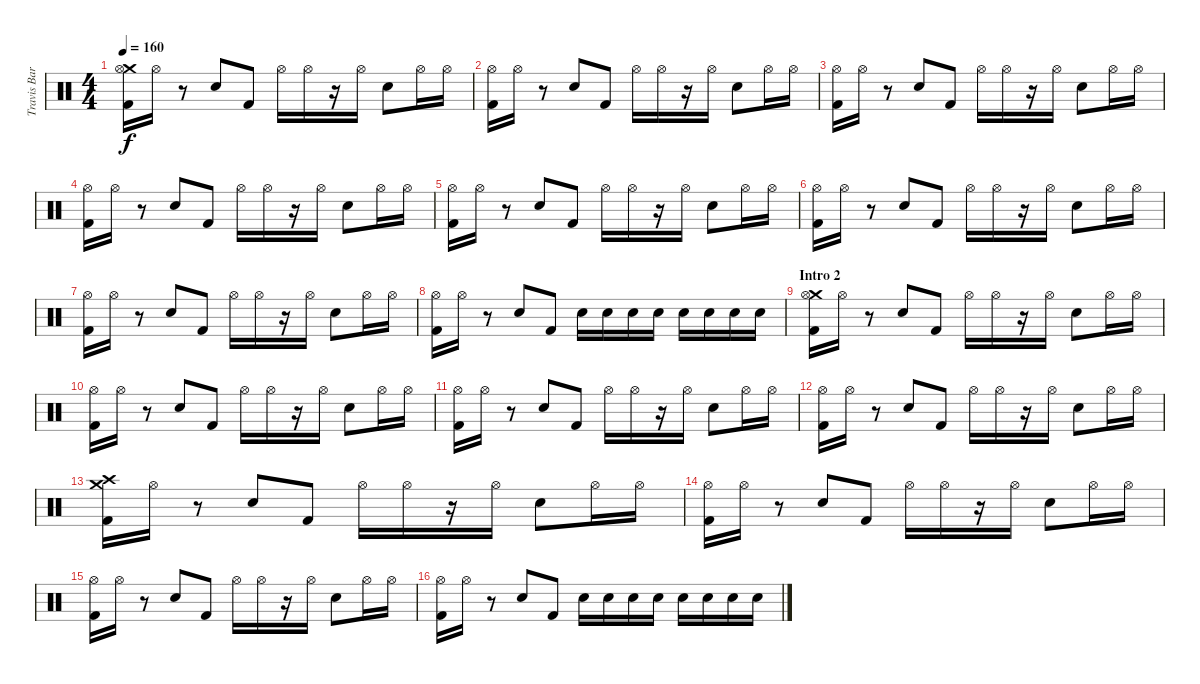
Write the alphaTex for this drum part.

\track ("Travis Barker Drums" "Travis Bar") {instrument percussion}
\staff {score}
\articulation defaults
\ts (4 4)
\tempo 160
\clef neutral
\ks c
("Crash medium (hit)" "Hi-Hat (open)" "Kick (hit) 2").16{dy f} "Hi-Hat (open)".16 r.8 "Electric Snare (hit)".8 "Kick (hit) 2".8 "Hi-Hat (open)".16 "Hi-Hat (open)".16 r.16 "Hi-Hat (open)".16 "Electric Snare (hit)".8 "Hi-Hat (open)".16 "Hi-Hat (open)".16 |
("Hi-Hat (open)" "Kick (hit) 2").16 "Hi-Hat (open)".16 r.8 "Electric Snare (hit)".8 "Kick (hit) 2".8 "Hi-Hat (open)".16 "Hi-Hat (open)".16 r.16 "Hi-Hat (open)".16 "Electric Snare (hit)".8 "Hi-Hat (open)".16 "Hi-Hat (open)".16 |
("Hi-Hat (open)" "Kick (hit) 2").16 "Hi-Hat (open)".16 r.8 "Electric Snare (hit)".8 "Kick (hit) 2".8 "Hi-Hat (open)".16 "Hi-Hat (open)".16 r.16 "Hi-Hat (open)".16 "Electric Snare (hit)".8 "Hi-Hat (open)".16 "Hi-Hat (open)".16 |
("Hi-Hat (open)" "Kick (hit) 2").16 "Hi-Hat (open)".16 r.8 "Electric Snare (hit)".8 "Kick (hit) 2".8 "Hi-Hat (open)".16 "Hi-Hat (open)".16 r.16 "Hi-Hat (open)".16 "Electric Snare (hit)".8 "Hi-Hat (open)".16 "Hi-Hat (open)".16 |
("Hi-Hat (open)" "Kick (hit) 2").16 "Hi-Hat (open)".16 r.8 "Electric Snare (hit)".8 "Kick (hit) 2".8 "Hi-Hat (open)".16 "Hi-Hat (open)".16 r.16 "Hi-Hat (open)".16 "Electric Snare (hit)".8 "Hi-Hat (open)".16 "Hi-Hat (open)".16 |
("Hi-Hat (open)" "Kick (hit) 2").16 "Hi-Hat (open)".16 r.8 "Electric Snare (hit)".8 "Kick (hit) 2".8 "Hi-Hat (open)".16 "Hi-Hat (open)".16 r.16 "Hi-Hat (open)".16 "Electric Snare (hit)".8 "Hi-Hat (open)".16 "Hi-Hat (open)".16 |
("Hi-Hat (open)" "Kick (hit) 2").16 "Hi-Hat (open)".16 r.8 "Electric Snare (hit)".8 "Kick (hit) 2".8 "Hi-Hat (open)".16 "Hi-Hat (open)".16 r.16 "Hi-Hat (open)".16 "Electric Snare (hit)".8 "Hi-Hat (open)".16 "Hi-Hat (open)".16 |
("Hi-Hat (open)" "Kick (hit) 2").16 "Hi-Hat (open)".16 r.8 "Electric Snare (hit)".8 "Kick (hit) 2".8 "Electric Snare (hit)".16 "Electric Snare (hit)".16 "Electric Snare (hit)".16 "Electric Snare (hit)".16 "Electric Snare (hit)".16 "Electric Snare (hit)".16 "Electric Snare (hit)".16 "Electric Snare (hit)".16 |
\section ("" "Intro 2")
("Crash medium (hit)" "Hi-Hat (open)" "Kick (hit) 2").16 "Hi-Hat (open)".16 r.8 "Electric Snare (hit)".8 "Kick (hit) 2".8 "Hi-Hat (open)".16 "Hi-Hat (open)".16 r.16 "Hi-Hat (open)".16 "Electric Snare (hit)".8 "Hi-Hat (open)".16 "Hi-Hat (open)".16 |
("Hi-Hat (open)" "Kick (hit) 2").16 "Hi-Hat (open)".16 r.8 "Electric Snare (hit)".8 "Kick (hit) 2".8 "Hi-Hat (open)".16 "Hi-Hat (open)".16 r.16 "Hi-Hat (open)".16 "Electric Snare (hit)".8 "Hi-Hat (open)".16 "Hi-Hat (open)".16 |
("Hi-Hat (open)" "Kick (hit) 2").16 "Hi-Hat (open)".16 r.8 "Electric Snare (hit)".8 "Kick (hit) 2".8 "Hi-Hat (open)".16 "Hi-Hat (open)".16 r.16 "Hi-Hat (open)".16 "Electric Snare (hit)".8 "Hi-Hat (open)".16 "Hi-Hat (open)".16 |
("Hi-Hat (open)" "Kick (hit) 2").16 "Hi-Hat (open)".16 r.8 "Electric Snare (hit)".8 "Kick (hit) 2".8 "Hi-Hat (open)".16 "Hi-Hat (open)".16 r.16 "Hi-Hat (open)".16 "Electric Snare (hit)".8 "Hi-Hat (open)".16 "Hi-Hat (open)".16 |
("Crash medium (hit)" "Crash high (hit)" "Kick (hit) 2").16 "Hi-Hat (open)".16 r.8 "Electric Snare (hit)".8 "Kick (hit) 2".8 "Hi-Hat (open)".16 "Hi-Hat (open)".16 r.16 "Hi-Hat (open)".16 "Electric Snare (hit)".8 "Hi-Hat (open)".16 "Hi-Hat (open)".16 |
("Hi-Hat (open)" "Kick (hit) 2").16 "Hi-Hat (open)".16 r.8 "Electric Snare (hit)".8 "Kick (hit) 2".8 "Hi-Hat (open)".16 "Hi-Hat (open)".16 r.16 "Hi-Hat (open)".16 "Electric Snare (hit)".8 "Hi-Hat (open)".16 "Hi-Hat (open)".16 |
("Hi-Hat (open)" "Kick (hit) 2").16 "Hi-Hat (open)".16 r.8 "Electric Snare (hit)".8 "Kick (hit) 2".8 "Hi-Hat (open)".16 "Hi-Hat (open)".16 r.16 "Hi-Hat (open)".16 "Electric Snare (hit)".8 "Hi-Hat (open)".16 "Hi-Hat (open)".16 |
("Hi-Hat (open)" "Kick (hit) 2").16 "Hi-Hat (open)".16 r.8 "Electric Snare (hit)".8 "Kick (hit) 2".8 "Electric Snare (hit)".16 "Electric Snare (hit)".16 "Electric Snare (hit)".16 "Electric Snare (hit)".16 "Electric Snare (hit)".16 "Electric Snare (hit)".16 "Electric Snare (hit)".16 "Electric Snare (hit)".16
